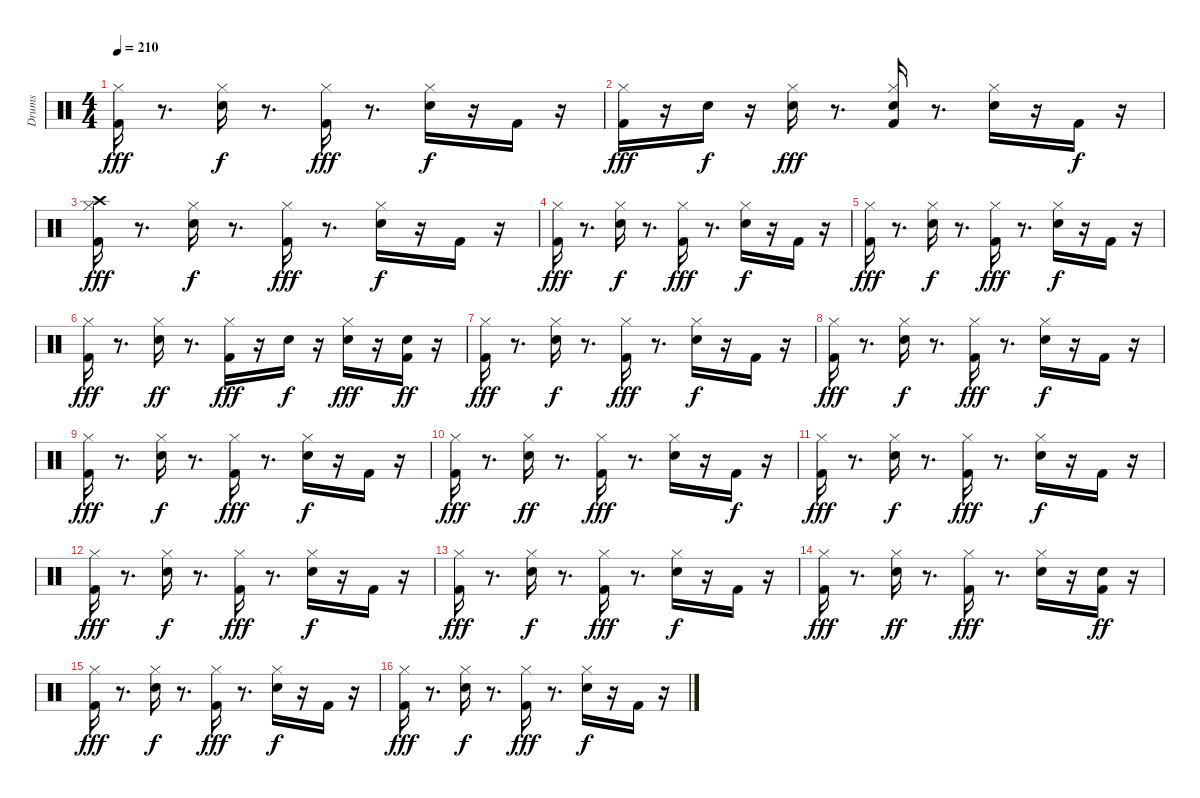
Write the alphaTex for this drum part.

\track ("Drums " "Drums ") {instrument percussion}
\staff {score}
\articulation defaults
\ts (4 4)
\tempo 210
\clef neutral
\ks c
("Kick (hit) 2" "Hi-Hat (closed)").16{dy fff} r.8{d} ("Snare (hit) 2" "Hi-Hat (closed)").16{dy f} r.8{d} ("Kick (hit) 2" "Hi-Hat (closed)").16{dy fff} r.8{d} ("Snare (hit) 2" "Hi-Hat (closed)").16{dy f} r.16 "Kick (hit) 2".16 r.16 |
("Kick (hit) 2" "Hi-Hat (closed)").16{dy fff} r.16 "Snare (hit) 2".16{dy f} r.16 ("Snare (hit) 2" "Hi-Hat (closed)").16{dy fff} r.8{d} ("Kick (hit) 2" "Snare (hit) 2" "Hi-Hat (closed)").16 r.8{d} ("Snare (hit) 2" "Hi-Hat (closed)").16 r.16 "Kick (hit) 2".16{dy f} r.16 |
("Kick (hit) 2" "Hi-Hat (closed)" "Crash high (hit)").16{dy fff} r.8{d} ("Snare (hit) 2" "Hi-Hat (closed)").16{dy f} r.8{d} ("Kick (hit) 2" "Hi-Hat (closed)").16{dy fff} r.8{d} ("Snare (hit) 2" "Hi-Hat (closed)").16{dy f} r.16 "Kick (hit) 2".16 r.16 |
("Kick (hit) 2" "Hi-Hat (closed)").16{dy fff} r.8{d} ("Snare (hit) 2" "Hi-Hat (closed)").16{dy f} r.8{d} ("Kick (hit) 2" "Hi-Hat (closed)").16{dy fff} r.8{d} ("Snare (hit) 2" "Hi-Hat (closed)").16{dy f} r.16 "Kick (hit) 2".16 r.16 |
("Kick (hit) 2" "Hi-Hat (closed)").16{dy fff} r.8{d} ("Snare (hit) 2" "Hi-Hat (closed)").16{dy f} r.8{d} ("Kick (hit) 2" "Hi-Hat (closed)").16{dy fff} r.8{d} ("Snare (hit) 2" "Hi-Hat (closed)").16{dy f} r.16 "Kick (hit) 2".16 r.16 |
("Kick (hit) 2" "Hi-Hat (closed)").16{dy fff} r.8{d} ("Snare (hit) 2" "Hi-Hat (closed)").16{dy ff} r.8{d} ("Kick (hit) 2" "Hi-Hat (closed)").16{dy fff} r.16 "Snare (hit) 2".16{dy f} r.16 ("Snare (hit) 2" "Hi-Hat (closed)").16{dy fff} r.16 ("Kick (hit) 2" "Snare (hit) 2").16{dy ff} r.16 |
("Kick (hit) 2" "Hi-Hat (closed)").16{dy fff} r.8{d} ("Snare (hit) 2" "Hi-Hat (closed)").16{dy f} r.8{d} ("Kick (hit) 2" "Hi-Hat (closed)").16{dy fff} r.8{d} ("Snare (hit) 2" "Hi-Hat (closed)").16{dy f} r.16 "Kick (hit) 2".16 r.16 |
("Kick (hit) 2" "Hi-Hat (closed)").16{dy fff} r.8{d} ("Snare (hit) 2" "Hi-Hat (closed)").16{dy f} r.8{d} ("Kick (hit) 2" "Hi-Hat (closed)").16{dy fff} r.8{d} ("Snare (hit) 2" "Hi-Hat (closed)").16{dy f} r.16 "Kick (hit) 2".16 r.16 |
("Kick (hit) 2" "Hi-Hat (closed)").16{dy fff} r.8{d} ("Snare (hit) 2" "Hi-Hat (closed)").16{dy f} r.8{d} ("Kick (hit) 2" "Hi-Hat (closed)").16{dy fff} r.8{d} ("Snare (hit) 2" "Hi-Hat (closed)").16{dy f} r.16 "Kick (hit) 2".16 r.16 |
("Kick (hit) 2" "Hi-Hat (closed)").16{dy fff} r.8{d} ("Snare (hit) 2" "Hi-Hat (closed)").16{dy ff} r.8{d} ("Kick (hit) 2" "Hi-Hat (closed)").16{dy fff} r.8{d} ("Snare (hit) 2" "Hi-Hat (closed)").16 r.16 "Kick (hit) 2".16{dy f} r.16 |
("Kick (hit) 2" "Hi-Hat (closed)").16{dy fff} r.8{d} ("Snare (hit) 2" "Hi-Hat (closed)").16{dy f} r.8{d} ("Kick (hit) 2" "Hi-Hat (closed)").16{dy fff} r.8{d} ("Snare (hit) 2" "Hi-Hat (closed)").16{dy f} r.16 "Kick (hit) 2".16 r.16 |
("Kick (hit) 2" "Hi-Hat (closed)").16{dy fff} r.8{d} ("Snare (hit) 2" "Hi-Hat (closed)").16{dy f} r.8{d} ("Kick (hit) 2" "Hi-Hat (closed)").16{dy fff} r.8{d} ("Snare (hit) 2" "Hi-Hat (closed)").16{dy f} r.16 "Kick (hit) 2".16 r.16 |
("Kick (hit) 2" "Hi-Hat (closed)").16{dy fff} r.8{d} ("Snare (hit) 2" "Hi-Hat (closed)").16{dy f} r.8{d} ("Kick (hit) 2" "Hi-Hat (closed)").16{dy fff} r.8{d} ("Snare (hit) 2" "Hi-Hat (closed)").16{dy f} r.16 "Kick (hit) 2".16 r.16 |
("Kick (hit) 2" "Hi-Hat (closed)").16{dy fff} r.8{d} ("Snare (hit) 2" "Hi-Hat (closed)").16{dy ff} r.8{d} ("Kick (hit) 2" "Hi-Hat (closed)").16{dy fff} r.8{d} ("Snare (hit) 2" "Hi-Hat (closed)").16 r.16 ("Kick (hit) 2" "Snare (hit) 2").16{dy ff} r.16 |
("Kick (hit) 2" "Hi-Hat (closed)").16{dy fff} r.8{d} ("Snare (hit) 2" "Hi-Hat (closed)").16{dy f} r.8{d} ("Kick (hit) 2" "Hi-Hat (closed)").16{dy fff} r.8{d} ("Snare (hit) 2" "Hi-Hat (closed)").16{dy f} r.16 "Kick (hit) 2".16 r.16 |
("Kick (hit) 2" "Hi-Hat (closed)").16{dy fff} r.8{d} ("Snare (hit) 2" "Hi-Hat (closed)").16{dy f} r.8{d} ("Kick (hit) 2" "Hi-Hat (closed)").16{dy fff} r.8{d} ("Snare (hit) 2" "Hi-Hat (closed)").16{dy f} r.16 "Kick (hit) 2".16 r.16
